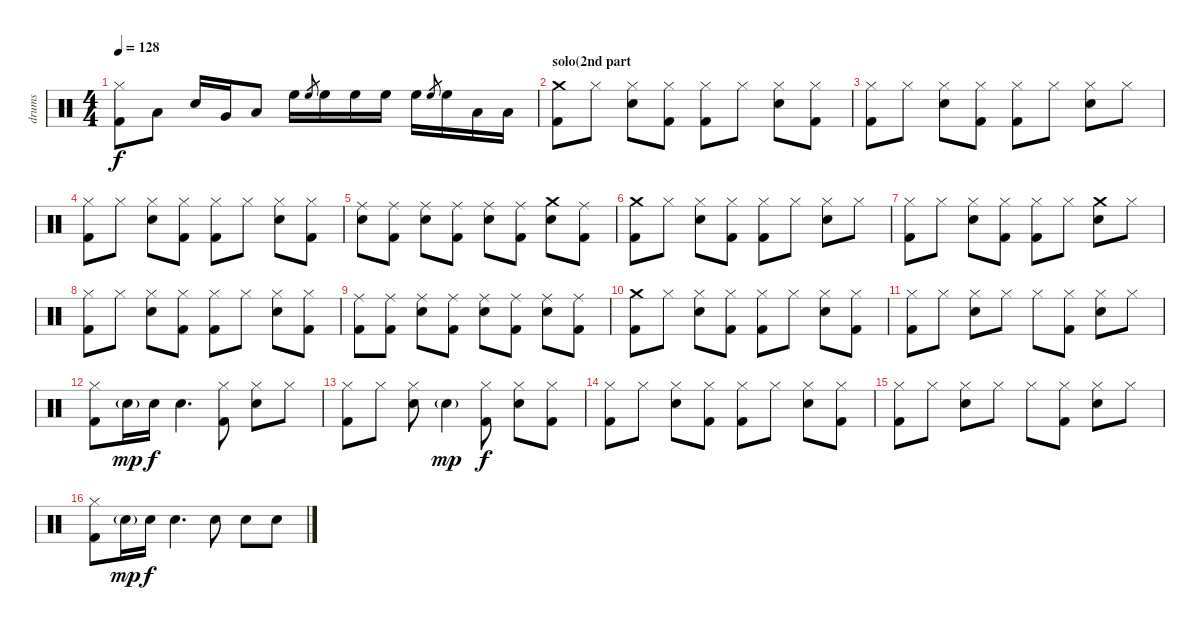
\track ("drums" "drums") {instrument percussion}
\staff {score}
\articulation defaults
\ts (4 4)
\tempo 128
\clef neutral
\ks c
("Hi-Hat (closed)" "Kick (hit) 2").8{dy f} "Low Floor Tom (hit)".8 "Snare (hit) 2".16 "Very Low Tom (hit)".16 "Low Floor Tom (hit)".8 "High Floor Tom (hit)".16 "High Floor Tom (hit)".8{gr} "High Floor Tom (hit)".16 "High Floor Tom (hit)".16 "High Floor Tom (hit)".16 "High Floor Tom (hit)".16 "High Floor Tom (hit)".8{gr} "High Floor Tom (hit)".16 "Low Floor Tom (hit)".16 "Low Floor Tom (hit)".16 |
\section ("" "solo(2nd part")
("Crash medium (hit)" "Kick (hit) 2").8 "Hi-Hat (closed)".8 ("Hi-Hat (closed)" "Snare (hit) 2").8 ("Hi-Hat (closed)" "Kick (hit) 2").8 ("Hi-Hat (closed)" "Kick (hit) 2").8 "Hi-Hat (closed)".8 ("Hi-Hat (closed)" "Snare (hit) 2").8 ("Hi-Hat (closed)" "Kick (hit) 2").8 |
("Hi-Hat (closed)" "Kick (hit) 2").8 "Hi-Hat (closed)".8 ("Hi-Hat (closed)" "Snare (hit) 2").8 ("Hi-Hat (closed)" "Kick (hit) 2").8 ("Hi-Hat (closed)" "Kick (hit) 2").8 "Hi-Hat (closed)".8 ("Hi-Hat (closed)" "Snare (hit) 2").8 "Hi-Hat (closed)".8 |
("Hi-Hat (closed)" "Kick (hit) 2").8 "Hi-Hat (closed)".8 ("Hi-Hat (closed)" "Snare (hit) 2").8 ("Hi-Hat (closed)" "Kick (hit) 2").8 ("Hi-Hat (closed)" "Kick (hit) 2").8 "Hi-Hat (closed)".8 ("Hi-Hat (closed)" "Snare (hit) 2").8 ("Hi-Hat (closed)" "Kick (hit) 2").8 |
("Ride (middle)" "Snare (hit) 2").8 ("Ride (middle)" "Kick (hit) 2").8 ("Ride (middle)" "Snare (hit) 2").8 ("Ride (middle)" "Kick (hit) 2").8 ("Ride (middle)" "Snare (hit) 2").8 ("Ride (middle)" "Kick (hit) 2").8 ("Crash medium (hit)" "Snare (hit) 2").8 ("Ride (middle)" "Kick (hit) 2").8 |
("Crash medium (hit)" "Kick (hit) 2").8 "Hi-Hat (closed)".8 ("Hi-Hat (closed)" "Snare (hit) 2").8 ("Hi-Hat (closed)" "Kick (hit) 2").8 ("Hi-Hat (closed)" "Kick (hit) 2").8 "Hi-Hat (closed)".8 ("Hi-Hat (closed)" "Snare (hit) 2").8 "Hi-Hat (closed)".8 |
("Hi-Hat (closed)" "Kick (hit) 2").8 "Hi-Hat (closed)".8 ("Hi-Hat (closed)" "Snare (hit) 2").8 ("Hi-Hat (closed)" "Kick (hit) 2").8 ("Hi-Hat (closed)" "Kick (hit) 2").8 "Hi-Hat (closed)".8 ("Crash medium (hit)" "Snare (hit) 2").8 "Hi-Hat (closed)".8 |
("Hi-Hat (closed)" "Kick (hit) 2").8 "Hi-Hat (closed)".8 ("Hi-Hat (closed)" "Snare (hit) 2").8 ("Hi-Hat (closed)" "Kick (hit) 2").8 ("Hi-Hat (closed)" "Kick (hit) 2").8 "Hi-Hat (closed)".8 ("Hi-Hat (closed)" "Snare (hit) 2").8 ("Hi-Hat (closed)" "Kick (hit) 2").8 |
("Ride (middle)" "Kick (hit) 2").8 ("Ride (middle)" "Kick (hit) 2").8 ("Ride (middle)" "Snare (hit) 2").8 ("Ride (middle)" "Kick (hit) 2").8 ("Ride (middle)" "Snare (hit) 2").8 ("Ride (middle)" "Kick (hit) 2").8 ("Ride (middle)" "Snare (hit) 2").8 ("Ride (middle)" "Kick (hit) 2").8 |
("Crash medium (hit)" "Kick (hit) 2").8 "Hi-Hat (closed)".8 ("Hi-Hat (closed)" "Snare (hit) 2").8 ("Hi-Hat (closed)" "Kick (hit) 2").8 ("Hi-Hat (closed)" "Kick (hit) 2").8 "Hi-Hat (closed)".8 ("Hi-Hat (closed)" "Snare (hit) 2").8 ("Hi-Hat (closed)" "Kick (hit) 2").8 |
("Hi-Hat (closed)" "Kick (hit) 2").8 "Hi-Hat (closed)".8 ("Hi-Hat (closed)" "Snare (hit) 2").8 "Hi-Hat (closed)".8 "Hi-Hat (closed)".8 ("Hi-Hat (closed)" "Kick (hit) 2").8 ("Hi-Hat (closed)" "Snare (hit) 2").8 "Hi-Hat (closed)".8 |
("Hi-Hat (closed)" "Kick (hit) 2").8 "Snare (hit) 2"{g}.16{dy mp} "Snare (hit) 2".16{dy f} "Snare (hit) 2".4{d} ("Hi-Hat (closed)" "Kick (hit) 2").8 ("Hi-Hat (closed)" "Snare (hit) 2").8 "Hi-Hat (closed)".8 |
("Hi-Hat (closed)" "Kick (hit) 2").8 "Hi-Hat (closed)".8 ("Hi-Hat (closed)" "Snare (hit) 2").8 "Snare (hit) 2"{g}.4{dy mp} ("Hi-Hat (closed)" "Kick (hit) 2").8{dy f} ("Hi-Hat (closed)" "Snare (hit) 2").8 ("Hi-Hat (closed)" "Kick (hit) 2").8 |
("Hi-Hat (closed)" "Kick (hit) 2").8 "Hi-Hat (closed)".8 ("Hi-Hat (closed)" "Snare (hit) 2").8 ("Hi-Hat (closed)" "Kick (hit) 2").8 ("Hi-Hat (closed)" "Kick (hit) 2").8 "Hi-Hat (closed)".8 ("Hi-Hat (closed)" "Snare (hit) 2").8 ("Hi-Hat (closed)" "Kick (hit) 2").8 |
("Hi-Hat (closed)" "Kick (hit) 2").8 "Hi-Hat (closed)".8 ("Hi-Hat (closed)" "Snare (hit) 2").8 "Hi-Hat (closed)".8 "Hi-Hat (closed)".8 ("Hi-Hat (closed)" "Kick (hit) 2").8 ("Hi-Hat (closed)" "Snare (hit) 2").8 "Hi-Hat (closed)".8 |
("Hi-Hat (closed)" "Kick (hit) 2").8 "Snare (hit) 2"{g}.16{dy mp} "Snare (hit) 2".16{dy f} "Snare (hit) 2".4{d} "Snare (hit) 2".8 "Snare (hit) 2".8 "Snare (hit) 2".8
